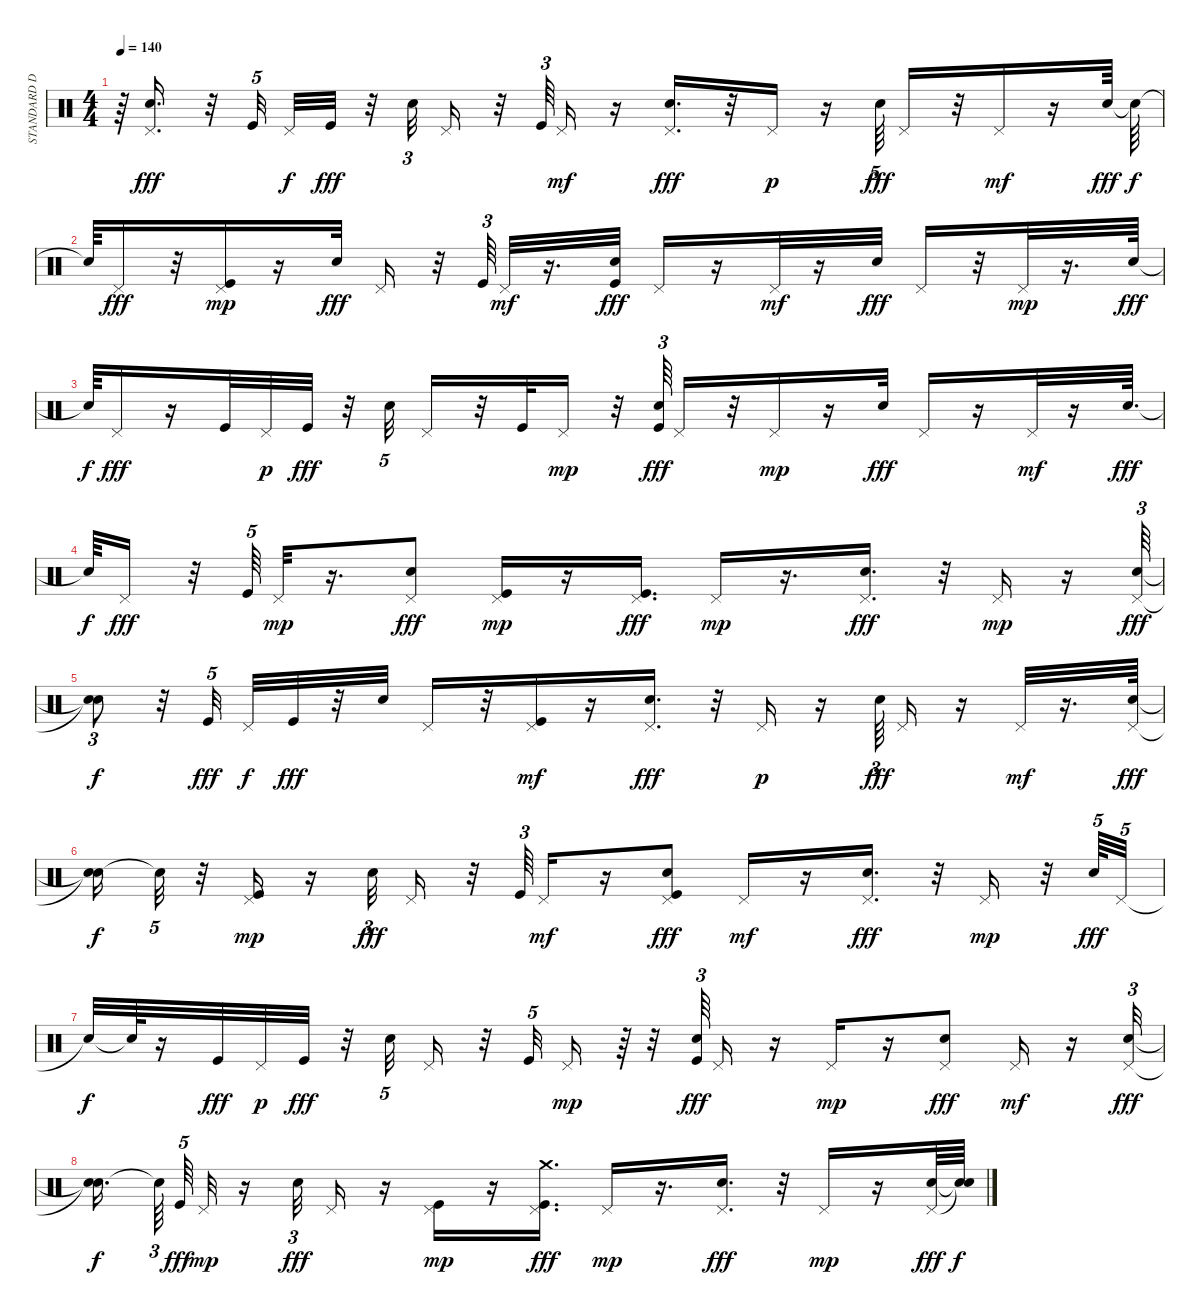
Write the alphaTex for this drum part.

\track ("STANDARD DRUMS" "STANDARD D") {instrument percussion}
\staff {score}
\articulation defaults
\ts (4 4)
\tempo 140
\clef neutral
\ks c
r.64{dy mp} ("Snare (hit) 2" "Pedal Hi-Hat (hit)").16{d dy fff} r.32 "Kick (hit)".32{tu (5 4) beam splitsecondary} "Pedal Hi-Hat (hit)".32{dy f} "Kick (hit)".32{dy fff} r.32 "Snare (hit) 2".32{tu (3 2)} "Pedal Hi-Hat (hit)".16 r.32 "Kick (hit)".64{tu (3 2)} "Pedal Hi-Hat (hit)".16{dy mf} r.16 ("Snare (hit) 2" "Pedal Hi-Hat (hit)").16{d dy fff} r.32 "Pedal Hi-Hat (hit)".16{dy p} r.16 "Snare (hit) 2".64{tu (5 4) dy fff} "Pedal Hi-Hat (hit)".16 r.32 "Pedal Hi-Hat (hit)".16{dy mf} r.16 "Snare (hit) 2".64{dy fff} "Snare (hit)"{t}.64{dy f} |
"Snare (hit)"{t}.64 "Pedal Hi-Hat (hit)".16{dy fff} r.32 ("Kick (hit)" "Pedal Hi-Hat (hit)").16{dy mp} r.16 "Snare (hit) 2".32{dy fff} "Pedal Hi-Hat (hit)".16 r.32 "Kick (hit)".64{tu (3 2)} "Pedal Hi-Hat (hit)".32{dy mf} r.16{d} ("Kick (hit)" "Snare (hit) 2").32{dy fff} "Pedal Hi-Hat (hit)".16 r.16 "Pedal Hi-Hat (hit)".32{dy mf} r.16 "Snare (hit) 2".32{dy fff} "Pedal Hi-Hat (hit)".16 r.32 "Pedal Hi-Hat (hit)".32{dy mp} r.16{d} "Snare (hit) 2".64{dy fff} |
"Snare (hit)"{t}.64{dy f} "Pedal Hi-Hat (hit)".16{dy fff} r.16 "Kick (hit)".32 "Pedal Hi-Hat (hit)".32{dy p} "Kick (hit)".32{dy fff} r.32 "Snare (hit) 2".32{tu (5 4)} "Pedal Hi-Hat (hit)".16 r.32 "Kick (hit)".32 "Pedal Hi-Hat (hit)".16{dy mp} r.32 ("Kick (hit)" "Snare (hit) 2").64{tu (3 2) dy fff} "Pedal Hi-Hat (hit)".16 r.32 "Pedal Hi-Hat (hit)".16{dy mp} r.16 "Snare (hit) 2".32{dy fff} "Pedal Hi-Hat (hit)".16 r.16 "Pedal Hi-Hat (hit)".32{dy mf} r.16 "Snare (hit) 2".64{d dy fff} |
"Snare (hit)"{t}.64{dy f} "Pedal Hi-Hat (hit)".16{dy fff} r.32 "Kick (hit)".64{tu (5 4)} "Pedal Hi-Hat (hit)".32{dy mp} r.16{d} ("Snare (hit) 2" "Pedal Hi-Hat (hit)").8{dy fff} ("Kick (hit)" "Pedal Hi-Hat (hit)").16{dy mp} r.16 ("Kick (hit)" "Pedal Hi-Hat (hit)").16{d dy fff} "Pedal Hi-Hat (hit)".16{dy mp} r.16{d} ("Pedal Hi-Hat (hit)" "Snare (hit) 2").16{d dy fff} r.32 "Pedal Hi-Hat (hit)".16{dy mp} r.16 ("Snare (hit) 2" "Pedal Hi-Hat (hit)").64{tu (3 2) dy fff} |
("Snare (hit)"{t} "Snare (hit)"{t}).8{tu (3 2) dy f} r.32 "Kick (hit)".32{tu (5 4) dy fff beam splitsecondary} "Pedal Hi-Hat (hit)".32{dy f} "Kick (hit)".32{dy fff} r.32 "Snare (hit) 2".32 "Pedal Hi-Hat (hit)".16 r.32 ("Kick (hit)" "Pedal Hi-Hat (hit)").16{dy mf} r.16 ("Snare (hit) 2" "Pedal Hi-Hat (hit)").16{d dy fff} r.32 "Pedal Hi-Hat (hit)".16{dy p} r.16 "Snare (hit) 2".64{tu (3 2) dy fff} "Pedal Hi-Hat (hit)".16 r.16 "Pedal Hi-Hat (hit)".32{dy mf} r.16{d} ("Snare (hit) 2" "Pedal Hi-Hat (hit)").64{dy fff} |
("Snare (hit)"{t} "Snare (hit)"{t}).16{dy f} "Snare (hit)"{t}.32{tu (5 4)} r.32 ("Kick (hit)" "Pedal Hi-Hat (hit)").16{dy mp} r.16 "Snare (hit) 2".32{tu (3 2) dy fff} "Pedal Hi-Hat (hit)".16 r.32 "Kick (hit)".64{tu (3 2)} "Pedal Hi-Hat (hit)".16{dy mf} r.16 ("Kick (hit)" "Snare (hit) 2" "Pedal Hi-Hat (hit)").8{dy fff} "Pedal Hi-Hat (hit)".16{dy mf} r.16 ("Snare (hit) 2" "Pedal Hi-Hat (hit)").16{d dy fff} r.32 "Pedal Hi-Hat (hit)".16{dy mp} r.32 "Snare (hit) 2".64{tu (5 4) dy fff} "Pedal Hi-Hat (hit)".32{tu (5 4)} |
"Snare (hit)"{t}.32{dy f} "Snare (hit)"{t}.64 r.16 "Kick (hit)".32{dy fff} "Pedal Hi-Hat (hit)".32{dy p} "Kick (hit)".32{dy fff} r.32 "Snare (hit) 2".32{tu (5 4)} "Pedal Hi-Hat (hit)".16 r.32 "Kick (hit)".32{tu (5 4)} "Pedal Hi-Hat (hit)".16{dy mp} r.64 r.32 ("Kick (hit)" "Snare (hit) 2").64{tu (3 2) dy fff} "Pedal Hi-Hat (hit)".16 r.16 "Pedal Hi-Hat (hit)".16{dy mp} r.16 ("Snare (hit) 2" "Pedal Hi-Hat (hit)").8{dy fff} "Pedal Hi-Hat (hit)".16{dy mf} r.16 ("Snare (hit) 2" "Pedal Hi-Hat (hit)").32{tu (3 2) dy fff} |
("Snare (hit)"{t} "Snare (hit)"{t}).16{d dy f beam splitsecondary} "Snare (hit)"{t}.64{tu (3 2)} "Kick (hit)".64{tu (5 4) dy fff beam splitsecondary} "Pedal Hi-Hat (hit)".32{dy mp} r.16 "Snare (hit) 2".32{tu (3 2) dy fff} "Pedal Hi-Hat (hit)".16 r.16 ("Kick (hit)" "Pedal Hi-Hat (hit)").16{dy mp} r.16 ("Kick (hit)" "Pedal Hi-Hat (hit)" "Crash medium (hit)").16{d dy fff} "Pedal Hi-Hat (hit)".16{dy mp} r.16{d} ("Pedal Hi-Hat (hit)" "Snare (hit) 2").16{d dy fff} r.32 "Pedal Hi-Hat (hit)".16{dy mp} r.16 ("Snare (hit) 2" "Pedal Hi-Hat (hit)").64{dy fff} ("Snare (hit)"{t} "Snare (hit)"{t}).64{dy f}
